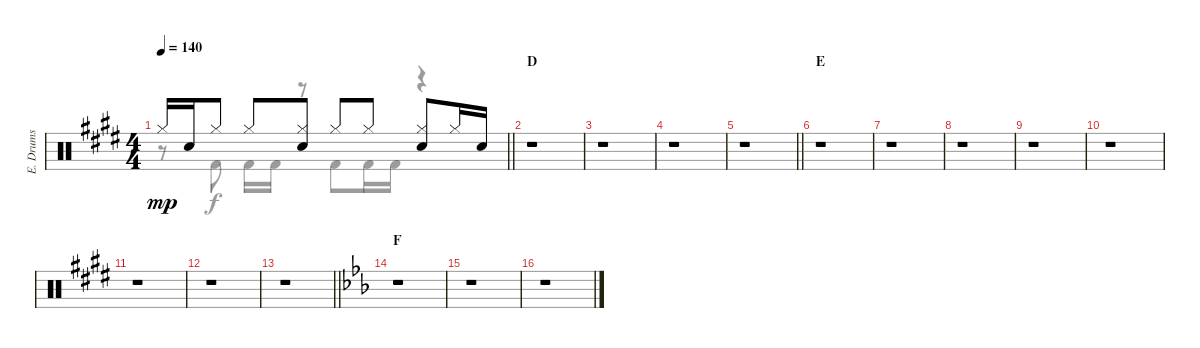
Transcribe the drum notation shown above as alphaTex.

\track ("E. Drums" "E. Drums") {instrument percussion}
\staff {score}
\articulation defaults
\voice
\ts (4 4)
\tempo 140
\clef neutral
\barLineRight lightlight
\ks e "Hi-Hat (closed)".16{dy mp} "Electric Snare (hit)".16 "Hi-Hat (closed)".8 "Hi-Hat (closed)".8
("Hi-Hat (closed)" "Electric Snare (hit)").8 "Hi-Hat (closed)".8 "Hi-Hat (closed)".8 ("Hi-Hat (closed)" "Electric Snare (hit)").8 "Hi-Hat (closed)".16 "Electric Snare (hit)".16 |
\section ("" "D")
r.1 |
r.1 |
r.1 |
\barLineRight lightlight
r.1 |
\section ("" "E")
r.1 |
r.1 |
r.1 |
r.1 |
r.1 |
r.1 |
r.1 |
\barLineRight lightlight
r.1 |
\section ("" "F")
\ks eb
r.1 |
r.1 |
r.1
\voice
\clef neutral
\ottava regular
\simile none
\barLineRight lightlight
\ks e
r.8{dy f} "Kick (hit) 2".8 "Kick (hit) 2".16 "Kick (hit) 2".16 r.8 "Kick (hit) 2".8 "Kick (hit) 2".16 "Kick (hit) 2".16 r.4 |
r.1 |
r.1 |
r.1 |
\barLineRight lightlight
r.1 |
r.1 |
r.1 |
r.1 |
r.1 |
r.1 |
r.1 |
r.1 |
\barLineRight lightlight
r.1 |
\ks eb
r.1 |
r.1 |
r.1
